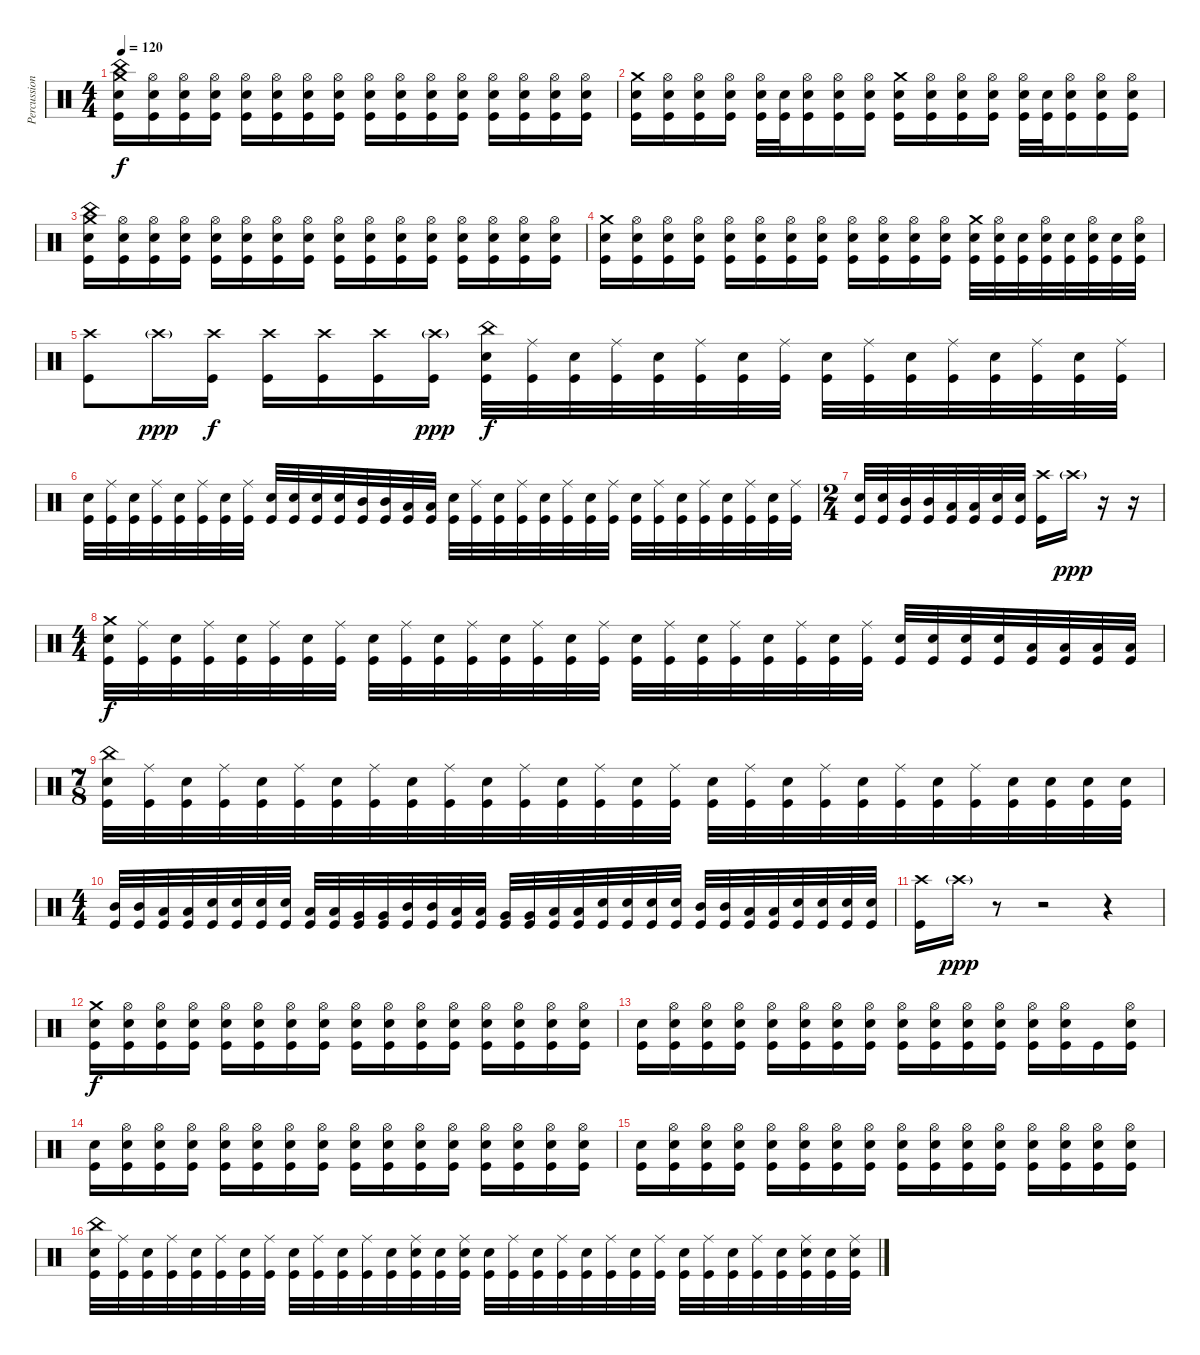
\track ("Percussion" "Percussion") {instrument percussion}
\staff {score}
\articulation defaults
\ts (4 4)
\tempo 120
\clef neutral
\ks c
("Crash medium (hit)" "China (hit)" "Electric Snare (hit)" "Kick (hit)").16{dy f} ("Hi-Hat (open)" "Electric Snare (hit)" "Kick (hit)").16 ("Hi-Hat (open)" "Electric Snare (hit)" "Kick (hit)").16 ("Hi-Hat (open)" "Electric Snare (hit)" "Kick (hit)").16 ("Hi-Hat (open)" "Electric Snare (hit)" "Kick (hit)").16 ("Hi-Hat (open)" "Electric Snare (hit)" "Kick (hit)").16 ("Hi-Hat (open)" "Electric Snare (hit)" "Kick (hit)").16 ("Hi-Hat (open)" "Electric Snare (hit)" "Kick (hit)").16 ("Hi-Hat (open)" "Electric Snare (hit)" "Kick (hit)").16 ("Hi-Hat (open)" "Electric Snare (hit)" "Kick (hit)").16 ("Hi-Hat (open)" "Electric Snare (hit)" "Kick (hit)").16 ("Hi-Hat (open)" "Electric Snare (hit)" "Kick (hit)").16 ("Hi-Hat (open)" "Electric Snare (hit)" "Kick (hit)").16 ("Hi-Hat (open)" "Electric Snare (hit)" "Kick (hit)").16 ("Hi-Hat (open)" "Electric Snare (hit)" "Kick (hit)").16 ("Hi-Hat (open)" "Electric Snare (hit)" "Kick (hit)").16 |
("Crash medium (hit)" "Electric Snare (hit)" "Kick (hit)").16 ("Hi-Hat (open)" "Electric Snare (hit)" "Kick (hit)").16 ("Hi-Hat (open)" "Electric Snare (hit)" "Kick (hit)").16 ("Hi-Hat (open)" "Electric Snare (hit)" "Kick (hit)").16 ("Hi-Hat (open)" "Electric Snare (hit)" "Kick (hit)").32 ("Electric Snare (hit)" "Kick (hit)").32 ("Hi-Hat (open)" "Electric Snare (hit)" "Kick (hit)").16 ("Hi-Hat (open)" "Electric Snare (hit)" "Kick (hit)").16 ("Hi-Hat (open)" "Electric Snare (hit)" "Kick (hit)").16 ("Crash medium (hit)" "Electric Snare (hit)" "Kick (hit)").16 ("Hi-Hat (open)" "Electric Snare (hit)" "Kick (hit)").16 ("Hi-Hat (open)" "Electric Snare (hit)" "Kick (hit)").16 ("Hi-Hat (open)" "Electric Snare (hit)" "Kick (hit)").16 ("Hi-Hat (open)" "Electric Snare (hit)" "Kick (hit)").32 ("Electric Snare (hit)" "Kick (hit)").32 ("Hi-Hat (open)" "Electric Snare (hit)" "Kick (hit)").16 ("Hi-Hat (open)" "Electric Snare (hit)" "Kick (hit)").16 ("Hi-Hat (open)" "Electric Snare (hit)" "Kick (hit)").16 |
("Crash medium (hit)" "China (hit)" "Electric Snare (hit)" "Kick (hit)").16 ("Hi-Hat (open)" "Electric Snare (hit)" "Kick (hit)").16 ("Hi-Hat (open)" "Electric Snare (hit)" "Kick (hit)").16 ("Hi-Hat (open)" "Electric Snare (hit)" "Kick (hit)").16 ("Hi-Hat (open)" "Electric Snare (hit)" "Kick (hit)").16 ("Hi-Hat (open)" "Electric Snare (hit)" "Kick (hit)").16 ("Hi-Hat (open)" "Electric Snare (hit)" "Kick (hit)").16 ("Hi-Hat (open)" "Electric Snare (hit)" "Kick (hit)").16 ("Hi-Hat (open)" "Electric Snare (hit)" "Kick (hit)").16 ("Hi-Hat (open)" "Electric Snare (hit)" "Kick (hit)").16 ("Hi-Hat (open)" "Electric Snare (hit)" "Kick (hit)").16 ("Hi-Hat (open)" "Electric Snare (hit)" "Kick (hit)").16 ("Hi-Hat (open)" "Electric Snare (hit)" "Kick (hit)").16 ("Hi-Hat (open)" "Electric Snare (hit)" "Kick (hit)").16 ("Hi-Hat (open)" "Electric Snare (hit)" "Kick (hit)").16 ("Hi-Hat (open)" "Electric Snare (hit)" "Kick (hit)").16 |
("Crash medium (hit)" "Electric Snare (hit)" "Kick (hit)").16 ("Hi-Hat (open)" "Electric Snare (hit)" "Kick (hit)").16 ("Hi-Hat (open)" "Electric Snare (hit)" "Kick (hit)").16 ("Hi-Hat (open)" "Electric Snare (hit)" "Kick (hit)").16 ("Hi-Hat (open)" "Electric Snare (hit)" "Kick (hit)").16 ("Hi-Hat (open)" "Electric Snare (hit)" "Kick (hit)").16 ("Hi-Hat (open)" "Electric Snare (hit)" "Kick (hit)").16 ("Hi-Hat (open)" "Electric Snare (hit)" "Kick (hit)").16 ("Hi-Hat (open)" "Electric Snare (hit)" "Kick (hit)").16 ("Hi-Hat (open)" "Electric Snare (hit)" "Kick (hit)").16 ("Hi-Hat (open)" "Electric Snare (hit)" "Kick (hit)").16 ("Hi-Hat (open)" "Electric Snare (hit)" "Kick (hit)").16 ("Crash medium (hit)" "Electric Snare (hit)" "Kick (hit)").32 ("Hi-Hat (open)" "Electric Snare (hit)" "Kick (hit)").32 ("Electric Snare (hit)" "Kick (hit)").32 ("Hi-Hat (open)" "Electric Snare (hit)" "Kick (hit)").32 ("Electric Snare (hit)" "Kick (hit)").32 ("Hi-Hat (open)" "Electric Snare (hit)" "Kick (hit)").32 ("Electric Snare (hit)" "Kick (hit)").32 ("Hi-Hat (open)" "Electric Snare (hit)" "Kick (hit)").32 |
("Crash high (hit)" "Kick (hit)").8 "Crash high (hit)"{g}.16{dy ppp} ("Crash high (hit)" "Kick (hit)").16{dy f} ("Crash high (hit)" "Kick (hit)").16 ("Crash high (hit)" "Kick (hit)").16 ("Crash high (hit)" "Kick (hit)").16 ("Crash high (hit)"{g} "Kick (hit)").16{dy ppp} ("China (hit)" "Electric Snare (hit)" "Kick (hit)").32{dy f} ("Ride (middle)" "Kick (hit)").32 ("Electric Snare (hit)" "Kick (hit)").32 ("Ride (middle)" "Kick (hit)").32 ("Electric Snare (hit)" "Kick (hit)").32 ("Ride (middle)" "Kick (hit)").32 ("Electric Snare (hit)" "Kick (hit)").32 ("Ride (middle)" "Kick (hit)").32 ("Electric Snare (hit)" "Kick (hit)").32 ("Ride (middle)" "Kick (hit)").32 ("Electric Snare (hit)" "Kick (hit)").32 ("Ride (middle)" "Kick (hit)").32 ("Electric Snare (hit)" "Kick (hit)").32 ("Ride (middle)" "Kick (hit)").32 ("Electric Snare (hit)" "Kick (hit)").32 ("Ride (middle)" "Kick (hit)").32 |
("Electric Snare (hit)" "Kick (hit)").32 ("Ride (middle)" "Kick (hit)").32 ("Electric Snare (hit)" "Kick (hit)").32 ("Ride (middle)" "Kick (hit)").32 ("Electric Snare (hit)" "Kick (hit)").32 ("Ride (middle)" "Kick (hit)").32 ("Electric Snare (hit)" "Kick (hit)").32 ("Ride (middle)" "Kick (hit)").32 ("Electric Snare (hit)" "Kick (hit)").32 ("Electric Snare (hit)" "Kick (hit)").32 ("Electric Snare (hit)" "Kick (hit)").32 ("Electric Snare (hit)" "Kick (hit)").32 ("Mid Tom (hit)" "Kick (hit)").32 ("Mid Tom (hit)" "Kick (hit)").32 ("Low Tom (hit)" "Kick (hit)").32 ("Low Tom (hit)" "Kick (hit)").32 ("Electric Snare (hit)" "Kick (hit)").32 ("Ride (middle)" "Kick (hit)").32 ("Electric Snare (hit)" "Kick (hit)").32 ("Ride (middle)" "Kick (hit)").32 ("Electric Snare (hit)" "Kick (hit)").32 ("Ride (middle)" "Kick (hit)").32 ("Electric Snare (hit)" "Kick (hit)").32 ("Ride (middle)" "Kick (hit)").32 ("Electric Snare (hit)" "Kick (hit)").32 ("Ride (middle)" "Kick (hit)").32 ("Electric Snare (hit)" "Kick (hit)").32 ("Ride (middle)" "Kick (hit)").32 ("Electric Snare (hit)" "Kick (hit)").32 ("Ride (middle)" "Kick (hit)").32 ("Electric Snare (hit)" "Kick (hit)").32 ("Ride (middle)" "Kick (hit)").32 |
\ts (2 4)
("Electric Snare (hit)" "Kick (hit)").32 ("Electric Snare (hit)" "Kick (hit)").32 ("Mid Tom (hit)" "Kick (hit)").32 ("Mid Tom (hit)" "Kick (hit)").32 ("Low Tom (hit)" "Kick (hit)").32 ("Low Tom (hit)" "Kick (hit)").32 ("Electric Snare (hit)" "Kick (hit)").32 ("Electric Snare (hit)" "Kick (hit)").32 ("Crash high (hit)" "Kick (hit)").16 "Crash high (hit)"{g}.16{dy ppp} r.16 r.16 |
\ts (4 4)
("Crash medium (hit)" "Electric Snare (hit)" "Kick (hit)").32{dy f} ("Ride (middle)" "Kick (hit)").32 ("Electric Snare (hit)" "Kick (hit)").32 ("Ride (middle)" "Kick (hit)").32 ("Electric Snare (hit)" "Kick (hit)").32 ("Ride (middle)" "Kick (hit)").32 ("Electric Snare (hit)" "Kick (hit)").32 ("Ride (middle)" "Kick (hit)").32 ("Electric Snare (hit)" "Kick (hit)").32 ("Ride (middle)" "Kick (hit)").32 ("Electric Snare (hit)" "Kick (hit)").32 ("Ride (middle)" "Kick (hit)").32 ("Electric Snare (hit)" "Kick (hit)").32 ("Ride (middle)" "Kick (hit)").32 ("Electric Snare (hit)" "Kick (hit)").32 ("Ride (middle)" "Kick (hit)").32 ("Electric Snare (hit)" "Kick (hit)").32 ("Ride (middle)" "Kick (hit)").32 ("Electric Snare (hit)" "Kick (hit)").32 ("Ride (middle)" "Kick (hit)").32 ("Electric Snare (hit)" "Kick (hit)").32 ("Ride (middle)" "Kick (hit)").32 ("Electric Snare (hit)" "Kick (hit)").32 ("Ride (middle)" "Kick (hit)").32 ("Electric Snare (hit)" "Kick (hit)").32 ("Electric Snare (hit)" "Kick (hit)").32 ("Electric Snare (hit)" "Kick (hit)").32 ("Electric Snare (hit)" "Kick (hit)").32 ("Low Tom (hit)" "Kick (hit)").32 ("Low Tom (hit)" "Kick (hit)").32 ("Low Tom (hit)" "Kick (hit)").32 ("Low Tom (hit)" "Kick (hit)").32 |
\ts (7 8)
("China (hit)" "Electric Snare (hit)" "Kick (hit)").32 ("Ride (middle)" "Kick (hit)").32 ("Electric Snare (hit)" "Kick (hit)").32 ("Ride (middle)" "Kick (hit)").32 ("Electric Snare (hit)" "Kick (hit)").32 ("Ride (middle)" "Kick (hit)").32 ("Electric Snare (hit)" "Kick (hit)").32 ("Ride (middle)" "Kick (hit)").32 ("Electric Snare (hit)" "Kick (hit)").32 ("Ride (middle)" "Kick (hit)").32 ("Electric Snare (hit)" "Kick (hit)").32 ("Ride (middle)" "Kick (hit)").32 ("Electric Snare (hit)" "Kick (hit)").32 ("Ride (middle)" "Kick (hit)").32 ("Electric Snare (hit)" "Kick (hit)").32 ("Ride (middle)" "Kick (hit)").32 ("Electric Snare (hit)" "Kick (hit)").32 ("Ride (middle)" "Kick (hit)").32 ("Electric Snare (hit)" "Kick (hit)").32 ("Ride (middle)" "Kick (hit)").32 ("Electric Snare (hit)" "Kick (hit)").32 ("Ride (middle)" "Kick (hit)").32 ("Electric Snare (hit)" "Kick (hit)").32 ("Ride (middle)" "Kick (hit)").32 ("Electric Snare (hit)" "Kick (hit)").32 ("Electric Snare (hit)" "Kick (hit)").32 ("Electric Snare (hit)" "Kick (hit)").32 ("Electric Snare (hit)" "Kick (hit)").32 |
\ts (4 4)
("Mid Tom (hit)" "Kick (hit)").32 ("Mid Tom (hit)" "Kick (hit)").32 ("Low Tom (hit)" "Kick (hit)").32 ("Low Tom (hit)" "Kick (hit)").32 ("Electric Snare (hit)" "Kick (hit)").32 ("Electric Snare (hit)" "Kick (hit)").32 ("Electric Snare (hit)" "Kick (hit)").32 ("Electric Snare (hit)" "Kick (hit)").32 ("Low Tom (hit)" "Kick (hit)").32 ("Low Tom (hit)" "Kick (hit)").32 ("Very Low Tom (hit)" "Kick (hit)").32 ("Very Low Tom (hit)" "Kick (hit)").32 ("Mid Tom (hit)" "Kick (hit)").32 ("Mid Tom (hit)" "Kick (hit)").32 ("Low Tom (hit)" "Kick (hit)").32 ("Low Tom (hit)" "Kick (hit)").32 ("Very Low Tom (hit)" "Kick (hit)").32 ("Very Low Tom (hit)" "Kick (hit)").32 ("Low Tom (hit)" "Kick (hit)").32 ("Low Tom (hit)" "Kick (hit)").32 ("Electric Snare (hit)" "Kick (hit)").32 ("Electric Snare (hit)" "Kick (hit)").32 ("Electric Snare (hit)" "Kick (hit)").32 ("Electric Snare (hit)" "Kick (hit)").32 ("Mid Tom (hit)" "Kick (hit)").32 ("Mid Tom (hit)" "Kick (hit)").32 ("Low Tom (hit)" "Kick (hit)").32 ("Low Tom (hit)" "Kick (hit)").32 ("Electric Snare (hit)" "Kick (hit)").32 ("Electric Snare (hit)" "Kick (hit)").32 ("Electric Snare (hit)" "Kick (hit)").32 ("Electric Snare (hit)" "Kick (hit)").32 |
("Crash high (hit)" "Kick (hit)").16 "Crash high (hit)"{g}.16{dy ppp} r.8 r.2 r.4 |
("Crash medium (hit)" "Electric Snare (hit)" "Kick (hit)").16{dy f} ("Hi-Hat (open)" "Electric Snare (hit)" "Kick (hit)").16 ("Hi-Hat (open)" "Electric Snare (hit)" "Kick (hit)").16 ("Hi-Hat (open)" "Electric Snare (hit)" "Kick (hit)").16 ("Hi-Hat (open)" "Electric Snare (hit)" "Kick (hit)").16 ("Hi-Hat (open)" "Electric Snare (hit)" "Kick (hit)").16 ("Hi-Hat (open)" "Electric Snare (hit)" "Kick (hit)").16 ("Hi-Hat (open)" "Electric Snare (hit)" "Kick (hit)").16 ("Hi-Hat (open)" "Electric Snare (hit)" "Kick (hit)").16 ("Hi-Hat (open)" "Electric Snare (hit)" "Kick (hit)").16 ("Hi-Hat (open)" "Electric Snare (hit)" "Kick (hit)").16 ("Hi-Hat (open)" "Electric Snare (hit)" "Kick (hit)").16 ("Hi-Hat (open)" "Electric Snare (hit)" "Kick (hit)").16 ("Hi-Hat (open)" "Electric Snare (hit)" "Kick (hit)").16 ("Hi-Hat (open)" "Electric Snare (hit)" "Kick (hit)").16 ("Hi-Hat (open)" "Electric Snare (hit)" "Kick (hit)").16 |
("Electric Snare (hit)" "Kick (hit)").16 ("Hi-Hat (open)" "Electric Snare (hit)" "Kick (hit)").16 ("Hi-Hat (open)" "Electric Snare (hit)" "Kick (hit)").16 ("Hi-Hat (open)" "Electric Snare (hit)" "Kick (hit)").16 ("Hi-Hat (open)" "Electric Snare (hit)" "Kick (hit)").16 ("Hi-Hat (open)" "Electric Snare (hit)" "Kick (hit)").16 ("Hi-Hat (open)" "Electric Snare (hit)" "Kick (hit)").16 ("Hi-Hat (open)" "Electric Snare (hit)" "Kick (hit)").16 ("Hi-Hat (open)" "Electric Snare (hit)" "Kick (hit)").16 ("Hi-Hat (open)" "Electric Snare (hit)" "Kick (hit)").16 ("Hi-Hat (open)" "Electric Snare (hit)" "Kick (hit)").16 ("Hi-Hat (open)" "Electric Snare (hit)" "Kick (hit)").16 ("Hi-Hat (open)" "Electric Snare (hit)" "Kick (hit)").16 ("Hi-Hat (open)" "Electric Snare (hit)" "Kick (hit)").16 "Kick (hit)".16 ("Hi-Hat (open)" "Electric Snare (hit)" "Kick (hit)").16 |
("Electric Snare (hit)" "Kick (hit)").16 ("Hi-Hat (open)" "Electric Snare (hit)" "Kick (hit)").16 ("Hi-Hat (open)" "Electric Snare (hit)" "Kick (hit)").16 ("Hi-Hat (open)" "Electric Snare (hit)" "Kick (hit)").16 ("Hi-Hat (open)" "Electric Snare (hit)" "Kick (hit)").16 ("Hi-Hat (open)" "Electric Snare (hit)" "Kick (hit)").16 ("Hi-Hat (open)" "Electric Snare (hit)" "Kick (hit)").16 ("Hi-Hat (open)" "Electric Snare (hit)" "Kick (hit)").16 ("Hi-Hat (open)" "Electric Snare (hit)" "Kick (hit)").16 ("Hi-Hat (open)" "Electric Snare (hit)" "Kick (hit)").16 ("Hi-Hat (open)" "Electric Snare (hit)" "Kick (hit)").16 ("Hi-Hat (open)" "Electric Snare (hit)" "Kick (hit)").16 ("Hi-Hat (open)" "Electric Snare (hit)" "Kick (hit)").16 ("Hi-Hat (open)" "Electric Snare (hit)" "Kick (hit)").16 ("Hi-Hat (open)" "Electric Snare (hit)" "Kick (hit)").16 ("Hi-Hat (open)" "Electric Snare (hit)" "Kick (hit)").16 |
("Electric Snare (hit)" "Kick (hit)").16 ("Hi-Hat (open)" "Electric Snare (hit)" "Kick (hit)").16 ("Hi-Hat (open)" "Electric Snare (hit)" "Kick (hit)").16 ("Hi-Hat (open)" "Electric Snare (hit)" "Kick (hit)").16 ("Hi-Hat (open)" "Electric Snare (hit)" "Kick (hit)").16 ("Hi-Hat (open)" "Electric Snare (hit)" "Kick (hit)").16 ("Hi-Hat (open)" "Electric Snare (hit)" "Kick (hit)").16 ("Hi-Hat (open)" "Electric Snare (hit)" "Kick (hit)").16 ("Hi-Hat (open)" "Electric Snare (hit)" "Kick (hit)").16 ("Hi-Hat (open)" "Electric Snare (hit)" "Kick (hit)").16 ("Hi-Hat (open)" "Electric Snare (hit)" "Kick (hit)").16 ("Hi-Hat (open)" "Electric Snare (hit)" "Kick (hit)").16 ("Hi-Hat (open)" "Electric Snare (hit)" "Kick (hit)").16 ("Hi-Hat (open)" "Electric Snare (hit)" "Kick (hit)").16 ("Hi-Hat (open)" "Electric Snare (hit)" "Kick (hit)").16 ("Hi-Hat (open)" "Electric Snare (hit)" "Kick (hit)").16 |
("China (hit)" "Electric Snare (hit)" "Kick (hit)").32 ("Ride (middle)" "Kick (hit)").32 ("Electric Snare (hit)" "Kick (hit)").32 ("Ride (middle)" "Kick (hit)").32 ("Electric Snare (hit)" "Kick (hit)").32 ("Ride (middle)" "Kick (hit)").32 ("Electric Snare (hit)" "Kick (hit)").32 ("Ride (middle)" "Kick (hit)").32 ("Electric Snare (hit)" "Kick (hit)").32 ("Ride (middle)" "Kick (hit)").32 ("Electric Snare (hit)" "Kick (hit)").32 ("Ride (middle)" "Kick (hit)").32 ("Electric Snare (hit)" "Kick (hit)").32 ("Ride (middle)" "Electric Snare (hit)" "Kick (hit)").32 ("Electric Snare (hit)" "Kick (hit)").32 ("Ride (middle)" "Electric Snare (hit)" "Kick (hit)").32 ("Electric Snare (hit)" "Kick (hit)").32 ("Ride (middle)" "Kick (hit)").32 ("Electric Snare (hit)" "Kick (hit)").32 ("Ride (middle)" "Kick (hit)").32 ("Electric Snare (hit)" "Kick (hit)").32 ("Ride (middle)" "Kick (hit)").32 ("Electric Snare (hit)" "Kick (hit)").32 ("Ride (middle)" "Kick (hit)").32 ("Electric Snare (hit)" "Kick (hit)").32 ("Ride (middle)" "Kick (hit)").32 ("Electric Snare (hit)" "Kick (hit)").32 ("Ride (middle)" "Kick (hit)").32 ("Electric Snare (hit)" "Kick (hit)").32 ("Ride (middle)" "Electric Snare (hit)" "Kick (hit)").32 ("Electric Snare (hit)" "Kick (hit)").32 ("Ride (middle)" "Electric Snare (hit)" "Kick (hit)").32
